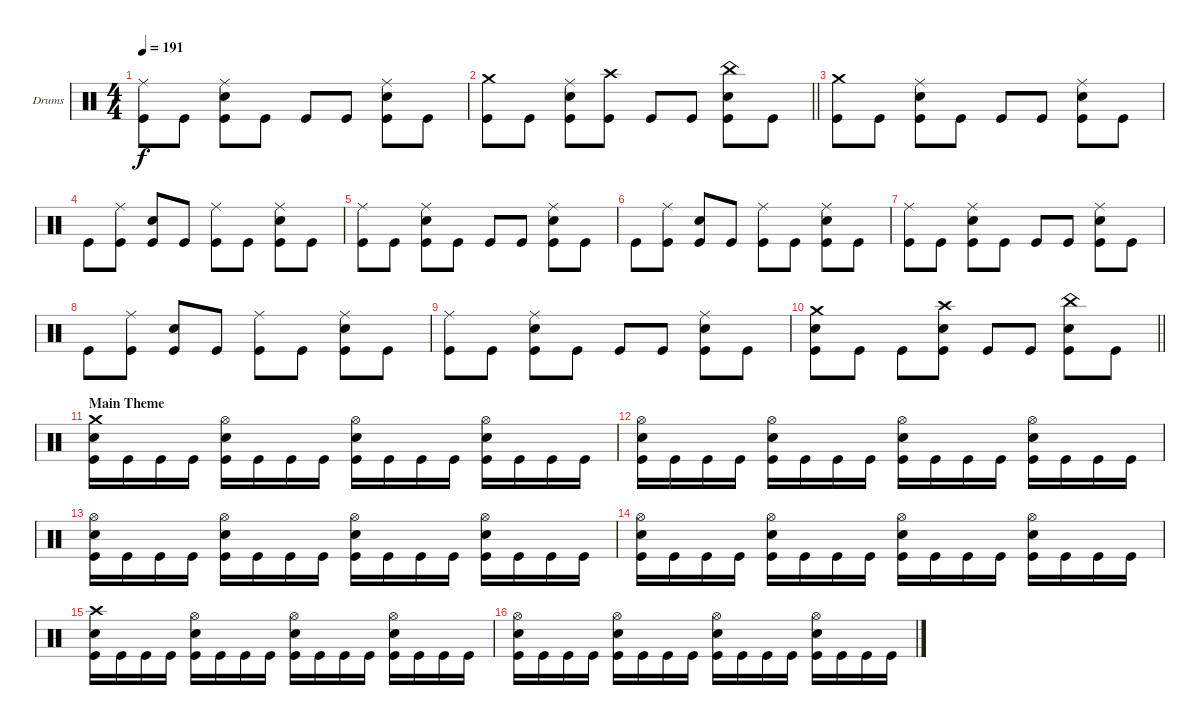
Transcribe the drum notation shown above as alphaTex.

\bracketExtendMode groupsimilarinstruments
\firstSystemTrackNameOrientation horizontal
\otherSystemsTrackNameOrientation horizontal
\track ("Drumkit" "Drums") {instrument percussion}
\staff {score}
\articulation defaults
\ts (4 4)
\tempo 191
\clef neutral
\ks c
("Ride (middle)" "Kick (hit)").8{dy f} "Kick (hit)".8 ("Ride (middle)" "Snare (hit) 2" "Kick (hit)").8 "Kick (hit)".8 "Kick (hit)".8 "Kick (hit)".8 ("Ride (middle)" "Snare (hit) 2" "Kick (hit)").8 "Kick (hit)".8 |
\barLineRight lightlight
("Crash medium (hit)" "Kick (hit)").8 "Kick (hit)".8 ("Ride (middle)" "Snare (hit) 2" "Kick (hit)").8 ("Crash high (hit)" "Kick (hit)").8 "Kick (hit)".8 "Kick (hit)".8 ("China (hit)" "Snare (hit) 2" "Kick (hit)").8 "Kick (hit)".8 |
\section ("" "")
("Crash medium (hit)" "Kick (hit)").8 "Kick (hit)".8 ("Ride (middle)" "Snare (hit) 2" "Kick (hit)").8 "Kick (hit)".8 "Kick (hit)".8 "Kick (hit)".8 ("Ride (middle)" "Snare (hit) 2" "Kick (hit)").8 "Kick (hit)".8 |
"Kick (hit)".8 ("Ride (middle)" "Kick (hit)").8 ("Snare (hit) 2" "Kick (hit)").8 "Kick (hit)".8 ("Ride (middle)" "Kick (hit)").8 "Kick (hit)".8 ("Ride (middle)" "Snare (hit) 2" "Kick (hit)").8 "Kick (hit)".8 |
("Ride (middle)" "Kick (hit)").8 "Kick (hit)".8 ("Ride (middle)" "Snare (hit) 2" "Kick (hit)").8 "Kick (hit)".8 "Kick (hit)".8 "Kick (hit)".8 ("Ride (middle)" "Snare (hit) 2" "Kick (hit)").8 "Kick (hit)".8 |
"Kick (hit)".8 ("Ride (middle)" "Kick (hit)").8 ("Snare (hit) 2" "Kick (hit)").8 "Kick (hit)".8 ("Ride (middle)" "Kick (hit)").8 "Kick (hit)".8 ("Ride (middle)" "Snare (hit) 2" "Kick (hit)").8 "Kick (hit)".8 |
("Ride (middle)" "Kick (hit)").8 "Kick (hit)".8 ("Ride (middle)" "Snare (hit) 2" "Kick (hit)").8 "Kick (hit)".8 "Kick (hit)".8 "Kick (hit)".8 ("Ride (middle)" "Snare (hit) 2" "Kick (hit)").8 "Kick (hit)".8 |
"Kick (hit)".8 ("Ride (middle)" "Kick (hit)").8 ("Snare (hit) 2" "Kick (hit)").8 "Kick (hit)".8 ("Ride (middle)" "Kick (hit)").8 "Kick (hit)".8 ("Ride (middle)" "Snare (hit) 2" "Kick (hit)").8 "Kick (hit)".8 |
("Ride (middle)" "Kick (hit)").8 "Kick (hit)".8 ("Ride (middle)" "Snare (hit) 2" "Kick (hit)").8 "Kick (hit)".8 "Kick (hit)".8 "Kick (hit)".8 ("Ride (middle)" "Snare (hit) 2" "Kick (hit)").8 "Kick (hit)".8 |
\barLineRight lightlight
("Crash medium (hit)" "Snare (hit) 2" "Kick (hit)").8 "Kick (hit)".8 "Kick (hit)".8 ("Crash high (hit)" "Snare (hit) 2" "Kick (hit)").8 "Kick (hit)".8 "Kick (hit)".8 ("China (hit)" "Snare (hit) 2" "Kick (hit)").8 "Kick (hit)".8 |
\section ("" "Main Theme")
("Crash medium (hit)" "Snare (hit) 2" "Kick (hit)").16 "Kick (hit)".16 "Kick (hit)".16 "Kick (hit)".16 ("Hi-Hat (open)" "Snare (hit) 2" "Kick (hit)").16 "Kick (hit)".16 "Kick (hit)".16 "Kick (hit)".16 ("Hi-Hat (open)" "Snare (hit) 2" "Kick (hit)").16 "Kick (hit)".16 "Kick (hit)".16 "Kick (hit)".16 ("Hi-Hat (open)" "Snare (hit) 2" "Kick (hit)").16 "Kick (hit)".16 "Kick (hit)".16 "Kick (hit)".16 |
("Hi-Hat (open)" "Snare (hit) 2" "Kick (hit)").16 "Kick (hit)".16 "Kick (hit)".16 "Kick (hit)".16 ("Hi-Hat (open)" "Snare (hit) 2" "Kick (hit)").16 "Kick (hit)".16 "Kick (hit)".16 "Kick (hit)".16 ("Hi-Hat (open)" "Snare (hit) 2" "Kick (hit)").16 "Kick (hit)".16 "Kick (hit)".16 "Kick (hit)".16 ("Hi-Hat (open)" "Snare (hit) 2" "Kick (hit)").16 "Kick (hit)".16 "Kick (hit)".16 "Kick (hit)".16 |
("Hi-Hat (open)" "Snare (hit) 2" "Kick (hit)").16 "Kick (hit)".16 "Kick (hit)".16 "Kick (hit)".16 ("Hi-Hat (open)" "Snare (hit) 2" "Kick (hit)").16 "Kick (hit)".16 "Kick (hit)".16 "Kick (hit)".16 ("Hi-Hat (open)" "Snare (hit) 2" "Kick (hit)").16 "Kick (hit)".16 "Kick (hit)".16 "Kick (hit)".16 ("Hi-Hat (open)" "Snare (hit) 2" "Kick (hit)").16 "Kick (hit)".16 "Kick (hit)".16 "Kick (hit)".16 |
("Hi-Hat (open)" "Snare (hit) 2" "Kick (hit)").16 "Kick (hit)".16 "Kick (hit)".16 "Kick (hit)".16 ("Hi-Hat (open)" "Snare (hit) 2" "Kick (hit)").16 "Kick (hit)".16 "Kick (hit)".16 "Kick (hit)".16 ("Hi-Hat (open)" "Snare (hit) 2" "Kick (hit)").16 "Kick (hit)".16 "Kick (hit)".16 "Kick (hit)".16 ("Hi-Hat (open)" "Snare (hit) 2" "Kick (hit)").16 "Kick (hit)".16 "Kick (hit)".16 "Kick (hit)".16 |
("Crash high (hit)" "Snare (hit) 2" "Kick (hit)").16 "Kick (hit)".16 "Kick (hit)".16 "Kick (hit)".16 ("Hi-Hat (open)" "Snare (hit) 2" "Kick (hit)").16 "Kick (hit)".16 "Kick (hit)".16 "Kick (hit)".16 ("Hi-Hat (open)" "Snare (hit) 2" "Kick (hit)").16 "Kick (hit)".16 "Kick (hit)".16 "Kick (hit)".16 ("Hi-Hat (open)" "Snare (hit) 2" "Kick (hit)").16 "Kick (hit)".16 "Kick (hit)".16 "Kick (hit)".16 |
("Hi-Hat (open)" "Snare (hit) 2" "Kick (hit)").16 "Kick (hit)".16 "Kick (hit)".16 "Kick (hit)".16 ("Hi-Hat (open)" "Snare (hit) 2" "Kick (hit)").16 "Kick (hit)".16 "Kick (hit)".16 "Kick (hit)".16 ("Hi-Hat (open)" "Snare (hit) 2" "Kick (hit)").16 "Kick (hit)".16 "Kick (hit)".16 "Kick (hit)".16 ("Hi-Hat (open)" "Snare (hit) 2" "Kick (hit)").16 "Kick (hit)".16 "Kick (hit)".16 "Kick (hit)".16
